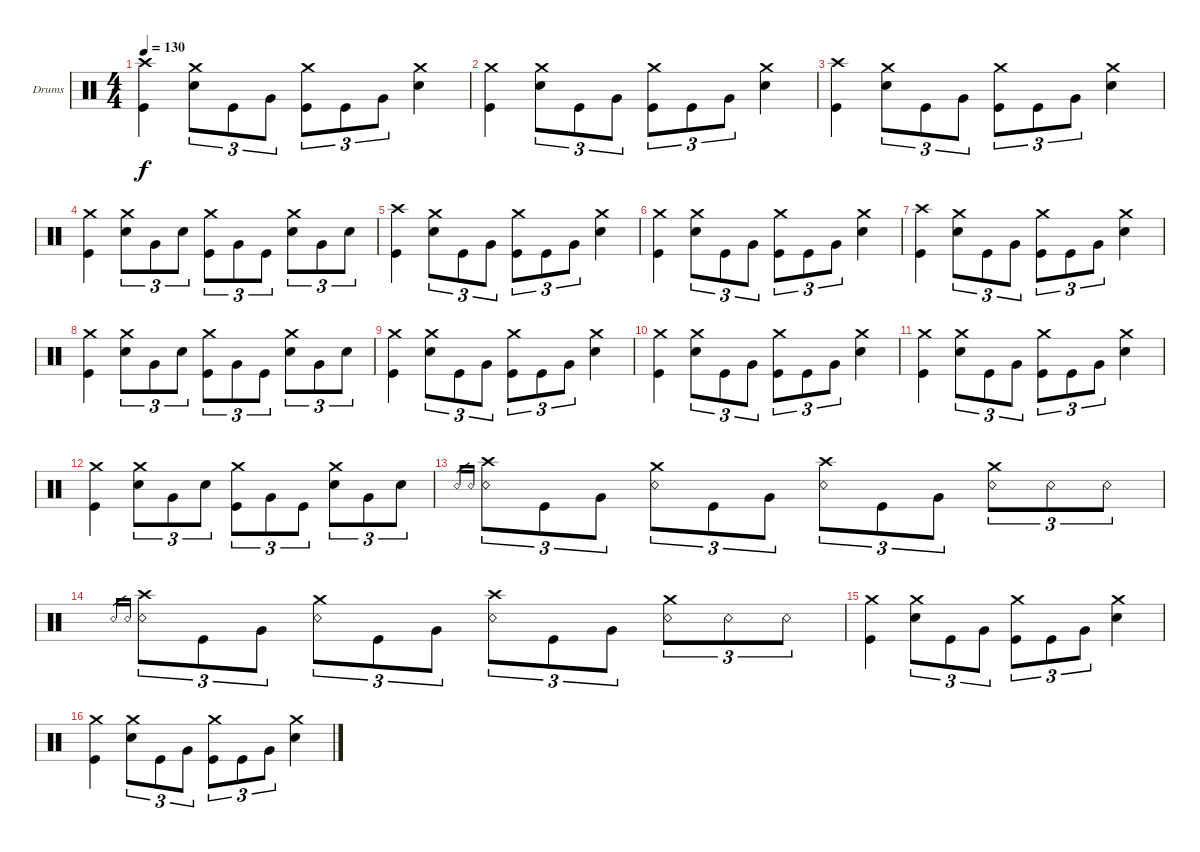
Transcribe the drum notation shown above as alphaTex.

\defaultSystemsLayout 4
\bracketExtendMode groupsimilarinstruments
\firstSystemTrackNameOrientation horizontal
\otherSystemsTrackNameOrientation horizontal
\track ("Drumkit" "Drums") {instrument percussion}
\staff {score}
\articulation defaults
\ts (4 4)
\tempo 130
\clef neutral
\ks c
("Kick (hit)" "Crash high (hit)").4{dy f} ("Snare (hit) 2" "Crash medium (hit)").8{tu (3 2)} "Kick (hit)".8{tu (3 2)} "Very Low Tom (hit)".8{tu (3 2)} ("Kick (hit)" "Crash medium (hit)").8{tu (3 2)} "Kick (hit)".8{tu (3 2)} "Very Low Tom (hit)".8{tu (3 2)} ("Snare (hit) 2" "Crash medium (hit)").4 |
("Kick (hit)" "Crash medium (hit)").4 ("Snare (hit) 2" "Crash medium (hit)").8{tu (3 2)} "Kick (hit)".8{tu (3 2)} "Very Low Tom (hit)".8{tu (3 2)} ("Kick (hit)" "Crash medium (hit)").8{tu (3 2)} "Kick (hit)".8{tu (3 2)} "Very Low Tom (hit)".8{tu (3 2)} ("Snare (hit) 2" "Crash medium (hit)").4 |
("Kick (hit)" "Crash high (hit)").4 ("Snare (hit) 2" "Crash medium (hit)").8{tu (3 2)} "Kick (hit)".8{tu (3 2)} "Very Low Tom (hit)".8{tu (3 2)} ("Kick (hit)" "Crash medium (hit)").8{tu (3 2)} "Kick (hit)".8{tu (3 2)} "Very Low Tom (hit)".8{tu (3 2)} ("Snare (hit) 2" "Crash medium (hit)").4 |
("Kick (hit)" "Crash medium (hit)").4 ("Snare (hit) 2" "Crash medium (hit)").8{tu (3 2)} "Very Low Tom (hit)".8{tu (3 2)} "Snare (hit) 2".8{tu (3 2)} ("Kick (hit)" "Crash medium (hit)").8{tu (3 2)} "Very Low Tom (hit)".8{tu (3 2)} "Kick (hit)".8{tu (3 2)} ("Snare (hit) 2" "Crash medium (hit)").8{tu (3 2)} "Very Low Tom (hit)".8{tu (3 2)} "Snare (hit) 2".8{tu (3 2)} |
("Kick (hit)" "Crash high (hit)").4 ("Snare (hit) 2" "Crash medium (hit)").8{tu (3 2)} "Kick (hit)".8{tu (3 2)} "Very Low Tom (hit)".8{tu (3 2)} ("Kick (hit)" "Crash medium (hit)").8{tu (3 2)} "Kick (hit)".8{tu (3 2)} "Very Low Tom (hit)".8{tu (3 2)} ("Snare (hit) 2" "Crash medium (hit)").4 |
("Kick (hit)" "Crash medium (hit)").4 ("Snare (hit) 2" "Crash medium (hit)").8{tu (3 2)} "Kick (hit)".8{tu (3 2)} "Very Low Tom (hit)".8{tu (3 2)} ("Kick (hit)" "Crash medium (hit)").8{tu (3 2)} "Kick (hit)".8{tu (3 2)} "Very Low Tom (hit)".8{tu (3 2)} ("Snare (hit) 2" "Crash medium (hit)").4 |
("Kick (hit)" "Crash high (hit)").4 ("Snare (hit) 2" "Crash medium (hit)").8{tu (3 2)} "Kick (hit)".8{tu (3 2)} "Very Low Tom (hit)".8{tu (3 2)} ("Kick (hit)" "Crash medium (hit)").8{tu (3 2)} "Kick (hit)".8{tu (3 2)} "Very Low Tom (hit)".8{tu (3 2)} ("Snare (hit) 2" "Crash medium (hit)").4 |
("Kick (hit)" "Crash medium (hit)").4 ("Snare (hit) 2" "Crash medium (hit)").8{tu (3 2)} "Very Low Tom (hit)".8{tu (3 2)} "Snare (hit) 2".8{tu (3 2)} ("Kick (hit)" "Crash medium (hit)").8{tu (3 2)} "Very Low Tom (hit)".8{tu (3 2)} "Kick (hit)".8{tu (3 2)} ("Snare (hit) 2" "Crash medium (hit)").8{tu (3 2)} "Very Low Tom (hit)".8{tu (3 2)} "Snare (hit) 2".8{tu (3 2)} |
("Kick (hit)" "Crash medium (hit)").4 ("Snare (hit) 2" "Crash medium (hit)").8{tu (3 2)} "Kick (hit)".8{tu (3 2)} "Very Low Tom (hit)".8{tu (3 2)} ("Kick (hit)" "Crash medium (hit)").8{tu (3 2)} "Kick (hit)".8{tu (3 2)} "Very Low Tom (hit)".8{tu (3 2)} ("Snare (hit) 2" "Crash medium (hit)").4 |
("Kick (hit)" "Crash medium (hit)").4 ("Snare (hit) 2" "Crash medium (hit)").8{tu (3 2)} "Kick (hit)".8{tu (3 2)} "Very Low Tom (hit)".8{tu (3 2)} ("Kick (hit)" "Crash medium (hit)").8{tu (3 2)} "Kick (hit)".8{tu (3 2)} "Very Low Tom (hit)".8{tu (3 2)} ("Snare (hit) 2" "Crash medium (hit)").4 |
("Kick (hit)" "Crash medium (hit)").4 ("Snare (hit) 2" "Crash medium (hit)").8{tu (3 2)} "Kick (hit)".8{tu (3 2)} "Very Low Tom (hit)".8{tu (3 2)} ("Kick (hit)" "Crash medium (hit)").8{tu (3 2)} "Kick (hit)".8{tu (3 2)} "Very Low Tom (hit)".8{tu (3 2)} ("Snare (hit) 2" "Crash medium (hit)").4 |
("Kick (hit)" "Crash medium (hit)").4 ("Snare (hit) 2" "Crash medium (hit)").8{tu (3 2)} "Very Low Tom (hit)".8{tu (3 2)} "Snare (hit) 2".8{tu (3 2)} ("Kick (hit)" "Crash medium (hit)").8{tu (3 2)} "Very Low Tom (hit)".8{tu (3 2)} "Kick (hit)".8{tu (3 2)} ("Snare (hit) 2" "Crash medium (hit)").8{tu (3 2)} "Very Low Tom (hit)".8{tu (3 2)} "Snare (hit) 2".8{tu (3 2)} |
"Snare (rim shot)".16{tu (3 2) gr} "Snare (rim shot)".16{tu (3 2) gr} ("Snare (rim shot)" "Crash high (hit)").8{tu (3 2)} "Kick (hit)".8{tu (3 2)} "Very Low Tom (hit)".8{tu (3 2)} ("Snare (rim shot)" "Crash medium (hit)").8{tu (3 2)} "Kick (hit)".8{tu (3 2)} "Very Low Tom (hit)".8{tu (3 2)} ("Snare (rim shot)" "Crash high (hit)").8{tu (3 2)} "Kick (hit)".8{tu (3 2)} "Very Low Tom (hit)".8{tu (3 2)} ("Snare (rim shot)" "Crash medium (hit)").8{tu (3 2)} "Snare (rim shot)".8{tu (3 2)} "Snare (rim shot)".8{tu (3 2)} |
"Snare (rim shot)".16{tu (3 2) gr} "Snare (rim shot)".16{tu (3 2) gr} ("Snare (rim shot)" "Crash high (hit)").8{tu (3 2)} "Kick (hit)".8{tu (3 2)} "Very Low Tom (hit)".8{tu (3 2)} ("Snare (rim shot)" "Crash medium (hit)").8{tu (3 2)} "Kick (hit)".8{tu (3 2)} "Very Low Tom (hit)".8{tu (3 2)} ("Snare (rim shot)" "Crash high (hit)").8{tu (3 2)} "Kick (hit)".8{tu (3 2)} "Very Low Tom (hit)".8{tu (3 2)} ("Snare (rim shot)" "Crash medium (hit)").8{tu (3 2)} "Snare (rim shot)".8{tu (3 2)} "Snare (rim shot)".8{tu (3 2)} |
("Kick (hit)" "Crash medium (hit)").4 ("Snare (hit) 2" "Crash medium (hit)").8{tu (3 2)} "Kick (hit)".8{tu (3 2)} "Very Low Tom (hit)".8{tu (3 2)} ("Kick (hit)" "Crash medium (hit)").8{tu (3 2)} "Kick (hit)".8{tu (3 2)} "Very Low Tom (hit)".8{tu (3 2)} ("Snare (hit) 2" "Crash medium (hit)").4 |
("Kick (hit)" "Crash medium (hit)").4 ("Snare (hit) 2" "Crash medium (hit)").8{tu (3 2)} "Kick (hit)".8{tu (3 2)} "Very Low Tom (hit)".8{tu (3 2)} ("Kick (hit)" "Crash medium (hit)").8{tu (3 2)} "Kick (hit)".8{tu (3 2)} "Very Low Tom (hit)".8{tu (3 2)} ("Snare (hit) 2" "Crash medium (hit)").4
